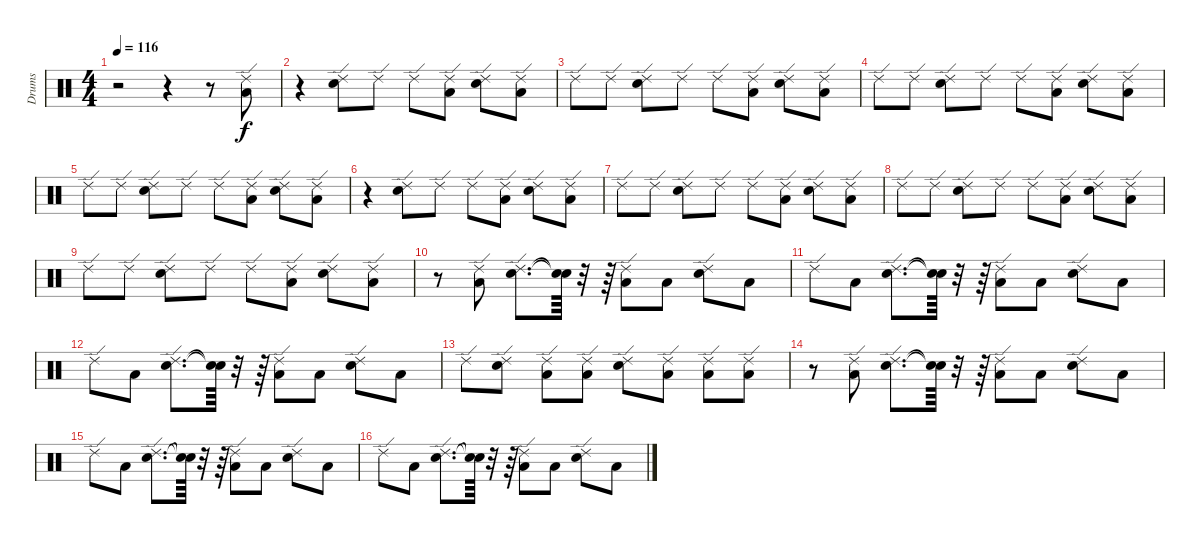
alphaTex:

\track ("Drums" "Drums") {instrument percussion}
\staff {score}
\articulation defaults
\ts (4 4)
\tempo 116
\clef neutral
\ks c
r.2{dy f} r.4 r.8 ("Low Floor Tom (hit)" "Ride (edge) 2").8 |
r.4 ("Snare (hit) 2" "Ride (edge) 2").8 "Ride (edge) 2".8 "Ride (edge) 2".8 ("Low Floor Tom (hit)" "Ride (edge) 2").8 ("Snare (hit) 2" "Ride (edge) 2").8 ("Low Floor Tom (hit)" "Ride (edge) 2").8 |
"Ride (edge) 2".8 "Ride (edge) 2".8 ("Snare (hit) 2" "Ride (edge) 2").8 "Ride (edge) 2".8 "Ride (edge) 2".8 ("Low Floor Tom (hit)" "Ride (edge) 2").8 ("Snare (hit) 2" "Ride (edge) 2").8 ("Low Floor Tom (hit)" "Ride (edge) 2").8 |
"Ride (edge) 2".8 "Ride (edge) 2".8 ("Snare (hit) 2" "Ride (edge) 2").8 "Ride (edge) 2".8 "Ride (edge) 2".8 ("Low Floor Tom (hit)" "Ride (edge) 2").8 ("Snare (hit) 2" "Ride (edge) 2").8 ("Low Floor Tom (hit)" "Ride (edge) 2").8 |
"Ride (edge) 2".8 "Ride (edge) 2".8 ("Snare (hit) 2" "Ride (edge) 2").8 "Ride (edge) 2".8 "Ride (edge) 2".8 ("Low Floor Tom (hit)" "Ride (edge) 2").8 ("Snare (hit) 2" "Ride (edge) 2").8 ("Low Floor Tom (hit)" "Ride (edge) 2").8 |
r.4 ("Snare (hit) 2" "Ride (edge) 2").8 "Ride (edge) 2".8 "Ride (edge) 2".8 ("Low Floor Tom (hit)" "Ride (edge) 2").8 ("Snare (hit) 2" "Ride (edge) 2").8 ("Low Floor Tom (hit)" "Ride (edge) 2").8 |
"Ride (edge) 2".8 "Ride (edge) 2".8 ("Snare (hit) 2" "Ride (edge) 2").8 "Ride (edge) 2".8 "Ride (edge) 2".8 ("Low Floor Tom (hit)" "Ride (edge) 2").8 ("Snare (hit) 2" "Ride (edge) 2").8 ("Low Floor Tom (hit)" "Ride (edge) 2").8 |
"Ride (edge) 2".8 "Ride (edge) 2".8 ("Snare (hit) 2" "Ride (edge) 2").8 "Ride (edge) 2".8 "Ride (edge) 2".8 ("Low Floor Tom (hit)" "Ride (edge) 2").8 ("Snare (hit) 2" "Ride (edge) 2").8 ("Low Floor Tom (hit)" "Ride (edge) 2").8 |
"Ride (edge) 2".8 "Ride (edge) 2".8 ("Snare (hit) 2" "Ride (edge) 2").8 "Ride (edge) 2".8 "Ride (edge) 2".8 ("Low Floor Tom (hit)" "Ride (edge) 2").8 ("Snare (hit) 2" "Ride (edge) 2").8 ("Low Floor Tom (hit)" "Ride (edge) 2").8 |
r.8 ("Low Floor Tom (hit)" "Ride (edge) 2").8 ("Snare (hit) 2" "Ride (edge) 2").8{d} ("Snare (hit)"{t} "Snare (hit)"{t}).64 r.32 r.64 ("Low Floor Tom (hit)" "Ride (edge) 2").8 "Low Floor Tom (hit)".8 ("Snare (hit) 2" "Ride (edge) 2").8 "Low Floor Tom (hit)".8 |
"Ride (edge) 2".8 "Low Floor Tom (hit)".8 ("Snare (hit) 2" "Ride (edge) 2").8{d} ("Snare (hit)"{t} "Snare (hit)"{t}).64 r.32 r.64 ("Low Floor Tom (hit)" "Ride (edge) 2").8 "Low Floor Tom (hit)".8 ("Snare (hit) 2" "Ride (edge) 2").8 "Low Floor Tom (hit)".8 |
"Ride (edge) 2".8 "Low Floor Tom (hit)".8 ("Snare (hit) 2" "Ride (edge) 2").8{d} ("Snare (hit)"{t} "Snare (hit)"{t}).64 r.32 r.64 ("Low Floor Tom (hit)" "Ride (edge) 2").8 "Low Floor Tom (hit)".8 ("Snare (hit) 2" "Ride (edge) 2").8 "Low Floor Tom (hit)".8 |
"Ride (edge) 2".8 ("Snare (hit) 2" "Ride (edge) 2").8 ("Low Floor Tom (hit)" "Ride (edge) 2").8 ("Low Floor Tom (hit)" "Ride (edge) 2").8 ("Snare (hit) 2" "Ride (edge) 2").8 ("Low Floor Tom (hit)" "Ride (edge) 2").8 ("Low Floor Tom (hit)" "Ride (edge) 2").8 ("Low Floor Tom (hit)" "Ride (edge) 2").8 |
r.8 ("Low Floor Tom (hit)" "Ride (edge) 2").8 ("Snare (hit) 2" "Ride (edge) 2").8{d} ("Snare (hit)"{t} "Snare (hit)"{t}).64 r.32 r.64 ("Low Floor Tom (hit)" "Ride (edge) 2").8 "Low Floor Tom (hit)".8 ("Snare (hit) 2" "Ride (edge) 2").8 "Low Floor Tom (hit)".8 |
"Ride (edge) 2".8 "Low Floor Tom (hit)".8 ("Snare (hit) 2" "Ride (edge) 2").8{d} ("Snare (hit)"{t} "Snare (hit)"{t}).64 r.32 r.64 ("Low Floor Tom (hit)" "Ride (edge) 2").8 "Low Floor Tom (hit)".8 ("Snare (hit) 2" "Ride (edge) 2").8 "Low Floor Tom (hit)".8 |
"Ride (edge) 2".8 "Low Floor Tom (hit)".8 ("Snare (hit) 2" "Ride (edge) 2").8{d} ("Snare (hit)"{t} "Snare (hit)"{t}).64 r.32 r.64 ("Low Floor Tom (hit)" "Ride (edge) 2").8 "Low Floor Tom (hit)".8 ("Snare (hit) 2" "Ride (edge) 2").8 "Low Floor Tom (hit)".8
